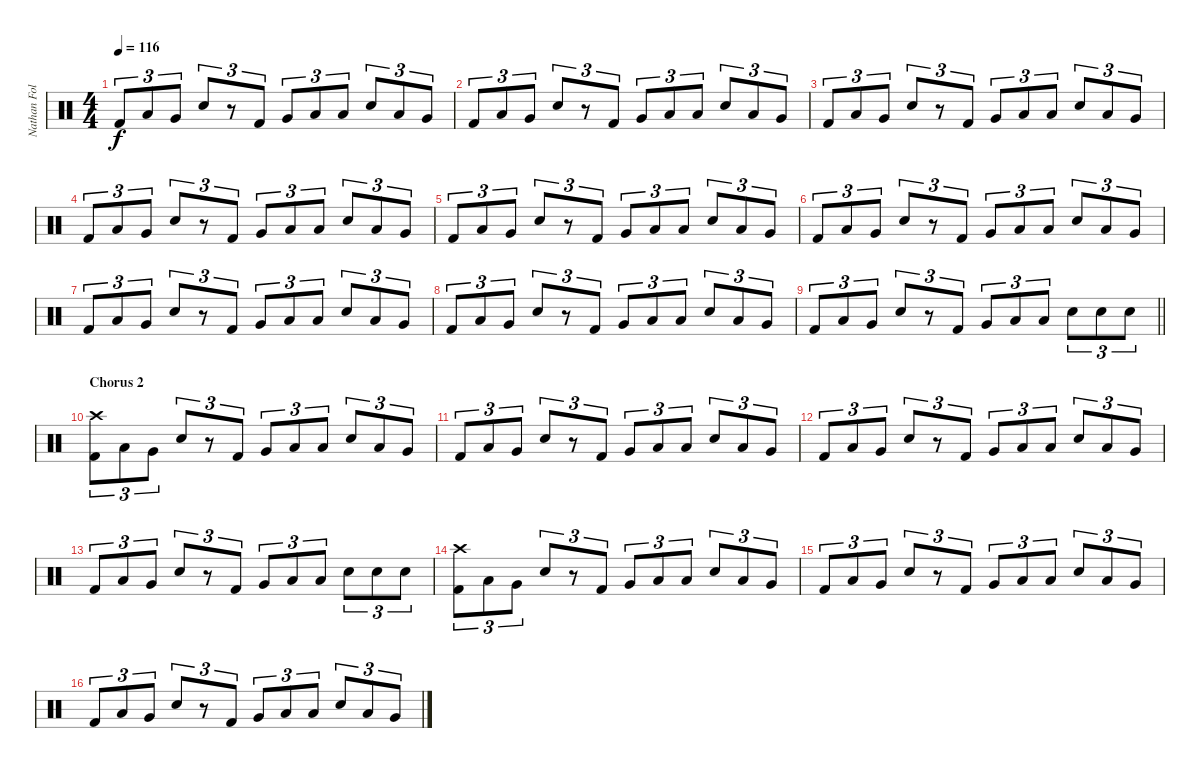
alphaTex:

\track ("Nathan Followill" "Nathan Fol") {instrument percussion}
\staff {score}
\articulation defaults
\ts (4 4)
\tempo 116
\clef neutral
\ks c "Kick (hit) 2".8{tu (3 2) dy f} "Low Tom (hit)".8{tu (3 2)} "Very Low Tom (hit)".8{tu (3 2)} "Electric Snare (hit)".8{tu (3 2)}
r.8{tu (3 2)} "Kick (hit) 2".8{tu (3 2)} "Very Low Tom (hit)".8{tu (3 2)} "Low Tom (hit)".8{tu (3 2)} "Low Floor Tom (hit)".8{tu (3 2)} "Electric Snare (hit)".8{tu (3 2)} "Low Tom (hit)".8{tu (3 2)} "Very Low Tom (hit)".8{tu (3 2)} |
"Kick (hit) 2".8{tu (3 2)} "Low Tom (hit)".8{tu (3 2)} "Very Low Tom (hit)".8{tu (3 2)} "Electric Snare (hit)".8{tu (3 2)} r.8{tu (3 2)} "Kick (hit) 2".8{tu (3 2)} "Very Low Tom (hit)".8{tu (3 2)} "Low Tom (hit)".8{tu (3 2)} "Low Floor Tom (hit)".8{tu (3 2)} "Electric Snare (hit)".8{tu (3 2)} "Low Tom (hit)".8{tu (3 2)} "Very Low Tom (hit)".8{tu (3 2)} |
"Kick (hit) 2".8{tu (3 2)} "Low Tom (hit)".8{tu (3 2)} "Very Low Tom (hit)".8{tu (3 2)} "Electric Snare (hit)".8{tu (3 2)} r.8{tu (3 2)} "Kick (hit) 2".8{tu (3 2)} "Very Low Tom (hit)".8{tu (3 2)} "Low Tom (hit)".8{tu (3 2)} "Low Floor Tom (hit)".8{tu (3 2)} "Electric Snare (hit)".8{tu (3 2)} "Low Tom (hit)".8{tu (3 2)} "Very Low Tom (hit)".8{tu (3 2)} |
"Kick (hit) 2".8{tu (3 2)} "Low Tom (hit)".8{tu (3 2)} "Very Low Tom (hit)".8{tu (3 2)} "Electric Snare (hit)".8{tu (3 2)} r.8{tu (3 2)} "Kick (hit) 2".8{tu (3 2)} "Very Low Tom (hit)".8{tu (3 2)} "Low Tom (hit)".8{tu (3 2)} "Low Floor Tom (hit)".8{tu (3 2)} "Electric Snare (hit)".8{tu (3 2)} "Low Tom (hit)".8{tu (3 2)} "Very Low Tom (hit)".8{tu (3 2)} |
"Kick (hit) 2".8{tu (3 2)} "Low Tom (hit)".8{tu (3 2)} "Very Low Tom (hit)".8{tu (3 2)} "Electric Snare (hit)".8{tu (3 2)} r.8{tu (3 2)} "Kick (hit) 2".8{tu (3 2)} "Very Low Tom (hit)".8{tu (3 2)} "Low Tom (hit)".8{tu (3 2)} "Low Floor Tom (hit)".8{tu (3 2)} "Electric Snare (hit)".8{tu (3 2)} "Low Tom (hit)".8{tu (3 2)} "Very Low Tom (hit)".8{tu (3 2)} |
"Kick (hit) 2".8{tu (3 2)} "Low Tom (hit)".8{tu (3 2)} "Very Low Tom (hit)".8{tu (3 2)} "Electric Snare (hit)".8{tu (3 2)} r.8{tu (3 2)} "Kick (hit) 2".8{tu (3 2)} "Very Low Tom (hit)".8{tu (3 2)} "Low Tom (hit)".8{tu (3 2)} "Low Floor Tom (hit)".8{tu (3 2)} "Electric Snare (hit)".8{tu (3 2)} "Low Tom (hit)".8{tu (3 2)} "Very Low Tom (hit)".8{tu (3 2)} |
"Kick (hit) 2".8{tu (3 2)} "Low Tom (hit)".8{tu (3 2)} "Very Low Tom (hit)".8{tu (3 2)} "Electric Snare (hit)".8{tu (3 2)} r.8{tu (3 2)} "Kick (hit) 2".8{tu (3 2)} "Very Low Tom (hit)".8{tu (3 2)} "Low Tom (hit)".8{tu (3 2)} "Low Floor Tom (hit)".8{tu (3 2)} "Electric Snare (hit)".8{tu (3 2)} "Low Tom (hit)".8{tu (3 2)} "Very Low Tom (hit)".8{tu (3 2)} |
"Kick (hit) 2".8{tu (3 2)} "Low Tom (hit)".8{tu (3 2)} "Very Low Tom (hit)".8{tu (3 2)} "Electric Snare (hit)".8{tu (3 2)} r.8{tu (3 2)} "Kick (hit) 2".8{tu (3 2)} "Very Low Tom (hit)".8{tu (3 2)} "Low Tom (hit)".8{tu (3 2)} "Low Floor Tom (hit)".8{tu (3 2)} "Electric Snare (hit)".8{tu (3 2)} "Low Tom (hit)".8{tu (3 2)} "Very Low Tom (hit)".8{tu (3 2)} |
\barLineRight lightlight "Kick (hit) 2".8{tu (3 2)} "Low Tom (hit)".8{tu (3 2)} "Very Low Tom (hit)".8{tu (3 2)} "Electric Snare (hit)".8{tu (3 2)}
r.8{tu (3 2)} "Kick (hit) 2".8{tu (3 2)} "Very Low Tom (hit)".8{tu (3 2)} "Low Tom (hit)".8{tu (3 2)} "Low Floor Tom (hit)".8{tu (3 2)} "Electric Snare (hit)".8{tu (3 2)} "Electric Snare (hit)".8{tu (3 2)} "Electric Snare (hit)".8{tu (3 2)} |
\section ("" "Chorus 2")
("Crash high (hit)" "Kick (hit) 2").8{tu (3 2)} "Low Tom (hit)".8{tu (3 2)} "Very Low Tom (hit)".8{tu (3 2)} "Electric Snare (hit)".8{tu (3 2)} r.8{tu (3 2)} "Kick (hit) 2".8{tu (3 2)} "Very Low Tom (hit)".8{tu (3 2)} "Low Tom (hit)".8{tu (3 2)} "Low Floor Tom (hit)".8{tu (3 2)} "Electric Snare (hit)".8{tu (3 2)} "Low Tom (hit)".8{tu (3 2)} "Very Low Tom (hit)".8{tu (3 2)} |
"Kick (hit) 2".8{tu (3 2)} "Low Tom (hit)".8{tu (3 2)} "Very Low Tom (hit)".8{tu (3 2)} "Electric Snare (hit)".8{tu (3 2)} r.8{tu (3 2)} "Kick (hit) 2".8{tu (3 2)} "Very Low Tom (hit)".8{tu (3 2)} "Low Tom (hit)".8{tu (3 2)} "Low Floor Tom (hit)".8{tu (3 2)} "Electric Snare (hit)".8{tu (3 2)} "Low Tom (hit)".8{tu (3 2)} "Very Low Tom (hit)".8{tu (3 2)} |
"Kick (hit) 2".8{tu (3 2)} "Low Tom (hit)".8{tu (3 2)} "Very Low Tom (hit)".8{tu (3 2)} "Electric Snare (hit)".8{tu (3 2)} r.8{tu (3 2)} "Kick (hit) 2".8{tu (3 2)} "Very Low Tom (hit)".8{tu (3 2)} "Low Tom (hit)".8{tu (3 2)} "Low Floor Tom (hit)".8{tu (3 2)} "Electric Snare (hit)".8{tu (3 2)} "Low Tom (hit)".8{tu (3 2)} "Very Low Tom (hit)".8{tu (3 2)} |
"Kick (hit) 2".8{tu (3 2)} "Low Tom (hit)".8{tu (3 2)} "Very Low Tom (hit)".8{tu (3 2)} "Electric Snare (hit)".8{tu (3 2)} r.8{tu (3 2)} "Kick (hit) 2".8{tu (3 2)} "Very Low Tom (hit)".8{tu (3 2)} "Low Tom (hit)".8{tu (3 2)} "Low Floor Tom (hit)".8{tu (3 2)} "Electric Snare (hit)".8{tu (3 2)} "Electric Snare (hit)".8{tu (3 2)} "Electric Snare (hit)".8{tu (3 2)} |
("Crash high (hit)" "Kick (hit) 2").8{tu (3 2)} "Low Tom (hit)".8{tu (3 2)} "Very Low Tom (hit)".8{tu (3 2)} "Electric Snare (hit)".8{tu (3 2)} r.8{tu (3 2)} "Kick (hit) 2".8{tu (3 2)} "Very Low Tom (hit)".8{tu (3 2)} "Low Tom (hit)".8{tu (3 2)} "Low Floor Tom (hit)".8{tu (3 2)} "Electric Snare (hit)".8{tu (3 2)} "Low Tom (hit)".8{tu (3 2)} "Very Low Tom (hit)".8{tu (3 2)} |
"Kick (hit) 2".8{tu (3 2)} "Low Tom (hit)".8{tu (3 2)} "Very Low Tom (hit)".8{tu (3 2)} "Electric Snare (hit)".8{tu (3 2)} r.8{tu (3 2)} "Kick (hit) 2".8{tu (3 2)} "Very Low Tom (hit)".8{tu (3 2)} "Low Tom (hit)".8{tu (3 2)} "Low Floor Tom (hit)".8{tu (3 2)} "Electric Snare (hit)".8{tu (3 2)} "Low Tom (hit)".8{tu (3 2)} "Very Low Tom (hit)".8{tu (3 2)} |
"Kick (hit) 2".8{tu (3 2)} "Low Tom (hit)".8{tu (3 2)} "Very Low Tom (hit)".8{tu (3 2)} "Electric Snare (hit)".8{tu (3 2)} r.8{tu (3 2)} "Kick (hit) 2".8{tu (3 2)} "Very Low Tom (hit)".8{tu (3 2)} "Low Tom (hit)".8{tu (3 2)} "Low Floor Tom (hit)".8{tu (3 2)} "Electric Snare (hit)".8{tu (3 2)} "Low Tom (hit)".8{tu (3 2)} "Very Low Tom (hit)".8{tu (3 2)}
